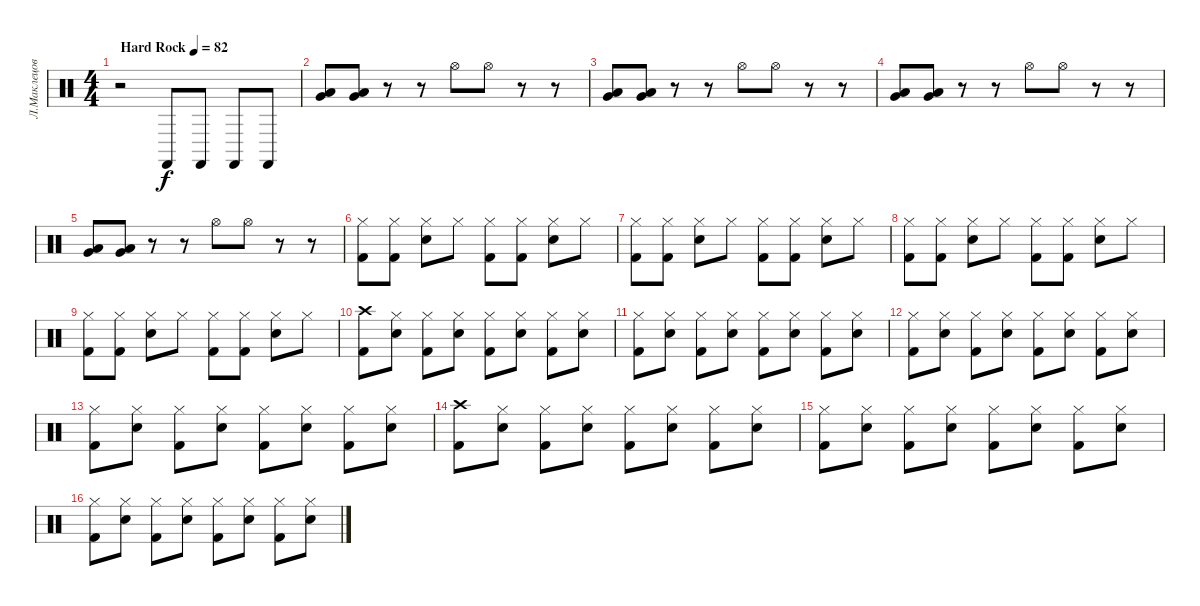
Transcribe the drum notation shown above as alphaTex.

\track ("Л.Маклецова" "Л.Маклецов") {instrument percussion}
\staff {score}
\articulation defaults
\ts (4 4)
\tempo (82 "Hard Rock")
\clef neutral
\ks c
r.2{dy f} "Castanets (hit)".8 "Castanets (hit)".8 "Castanets (hit)".8 "Castanets (hit)".8 |
("Very Low Tom (hit)" "Low Tom (hit)").8 ("Very Low Tom (hit)" "Low Tom (hit)").8 r.8 r.8 "Hi-Hat (open)".8 "Hi-Hat (open)".8 r.8 r.8 |
("Very Low Tom (hit)" "Low Tom (hit)").8 ("Very Low Tom (hit)" "Low Tom (hit)").8 r.8 r.8 "Hi-Hat (open)".8 "Hi-Hat (open)".8 r.8 r.8 |
("Very Low Tom (hit)" "Low Tom (hit)").8 ("Very Low Tom (hit)" "Low Tom (hit)").8 r.8 r.8 "Hi-Hat (open)".8 "Hi-Hat (open)".8 r.8 r.8 |
("Very Low Tom (hit)" "Low Tom (hit)").8 ("Very Low Tom (hit)" "Low Tom (hit)").8 r.8 r.8 "Hi-Hat (open)".8 "Hi-Hat (open)".8 r.8 r.8 |
("Hi-Hat (closed)" "Kick (hit) 2").8 ("Hi-Hat (closed)" "Kick (hit) 2").8 ("Hi-Hat (closed)" "Snare (hit) 2").8 "Hi-Hat (closed)".8 ("Hi-Hat (closed)" "Kick (hit) 2").8 ("Hi-Hat (closed)" "Kick (hit) 2").8 ("Hi-Hat (closed)" "Snare (hit) 2").8 "Hi-Hat (closed)".8 |
("Hi-Hat (closed)" "Kick (hit) 2").8 ("Hi-Hat (closed)" "Kick (hit) 2").8 ("Hi-Hat (closed)" "Snare (hit) 2").8 "Hi-Hat (closed)".8 ("Hi-Hat (closed)" "Kick (hit) 2").8 ("Hi-Hat (closed)" "Kick (hit) 2").8 ("Hi-Hat (closed)" "Snare (hit) 2").8 "Hi-Hat (closed)".8 |
("Hi-Hat (closed)" "Kick (hit) 2").8 ("Hi-Hat (closed)" "Kick (hit) 2").8 ("Hi-Hat (closed)" "Snare (hit) 2").8 "Hi-Hat (closed)".8 ("Hi-Hat (closed)" "Kick (hit) 2").8 ("Hi-Hat (closed)" "Kick (hit) 2").8 ("Hi-Hat (closed)" "Snare (hit) 2").8 "Hi-Hat (closed)".8 |
("Hi-Hat (closed)" "Kick (hit) 2").8 ("Hi-Hat (closed)" "Kick (hit) 2").8 ("Hi-Hat (closed)" "Snare (hit) 2").8 "Hi-Hat (closed)".8 ("Hi-Hat (closed)" "Kick (hit) 2").8 ("Hi-Hat (closed)" "Kick (hit) 2").8 ("Hi-Hat (closed)" "Snare (hit) 2").8 "Hi-Hat (closed)".8 |
("Crash high (hit)" "Kick (hit) 2").8 ("Hi-Hat (closed)" "Snare (hit) 2").8 ("Hi-Hat (closed)" "Kick (hit) 2").8 ("Hi-Hat (closed)" "Snare (hit) 2").8 ("Hi-Hat (closed)" "Kick (hit) 2").8 ("Hi-Hat (closed)" "Snare (hit) 2").8 ("Hi-Hat (closed)" "Kick (hit) 2").8 ("Hi-Hat (closed)" "Snare (hit) 2").8 |
("Hi-Hat (closed)" "Kick (hit) 2").8 ("Hi-Hat (closed)" "Snare (hit) 2").8 ("Hi-Hat (closed)" "Kick (hit) 2").8 ("Hi-Hat (closed)" "Snare (hit) 2").8 ("Hi-Hat (closed)" "Kick (hit) 2").8 ("Hi-Hat (closed)" "Snare (hit) 2").8 ("Hi-Hat (closed)" "Kick (hit) 2").8 ("Hi-Hat (closed)" "Snare (hit) 2").8 |
("Hi-Hat (closed)" "Kick (hit) 2").8 ("Hi-Hat (closed)" "Snare (hit) 2").8 ("Hi-Hat (closed)" "Kick (hit) 2").8 ("Hi-Hat (closed)" "Snare (hit) 2").8 ("Hi-Hat (closed)" "Kick (hit) 2").8 ("Hi-Hat (closed)" "Snare (hit) 2").8 ("Hi-Hat (closed)" "Kick (hit) 2").8 ("Hi-Hat (closed)" "Snare (hit) 2").8 |
("Hi-Hat (closed)" "Kick (hit) 2").8 ("Hi-Hat (closed)" "Snare (hit) 2").8 ("Hi-Hat (closed)" "Kick (hit) 2").8 ("Hi-Hat (closed)" "Snare (hit) 2").8 ("Hi-Hat (closed)" "Kick (hit) 2").8 ("Hi-Hat (closed)" "Snare (hit) 2").8 ("Hi-Hat (closed)" "Kick (hit) 2").8 ("Hi-Hat (closed)" "Snare (hit) 2").8 |
("Crash high (hit)" "Kick (hit) 2").8 ("Hi-Hat (closed)" "Snare (hit) 2").8 ("Hi-Hat (closed)" "Kick (hit) 2").8 ("Hi-Hat (closed)" "Snare (hit) 2").8 ("Hi-Hat (closed)" "Kick (hit) 2").8 ("Hi-Hat (closed)" "Snare (hit) 2").8 ("Hi-Hat (closed)" "Kick (hit) 2").8 ("Hi-Hat (closed)" "Snare (hit) 2").8 |
("Hi-Hat (closed)" "Kick (hit) 2").8 ("Hi-Hat (closed)" "Snare (hit) 2").8 ("Hi-Hat (closed)" "Kick (hit) 2").8 ("Hi-Hat (closed)" "Snare (hit) 2").8 ("Hi-Hat (closed)" "Kick (hit) 2").8 ("Hi-Hat (closed)" "Snare (hit) 2").8 ("Hi-Hat (closed)" "Kick (hit) 2").8 ("Hi-Hat (closed)" "Snare (hit) 2").8 |
("Hi-Hat (closed)" "Kick (hit) 2").8 ("Hi-Hat (closed)" "Snare (hit) 2").8 ("Hi-Hat (closed)" "Kick (hit) 2").8 ("Hi-Hat (closed)" "Snare (hit) 2").8 ("Hi-Hat (closed)" "Kick (hit) 2").8 ("Hi-Hat (closed)" "Snare (hit) 2").8 ("Hi-Hat (closed)" "Kick (hit) 2").8 ("Hi-Hat (closed)" "Snare (hit) 2").8
